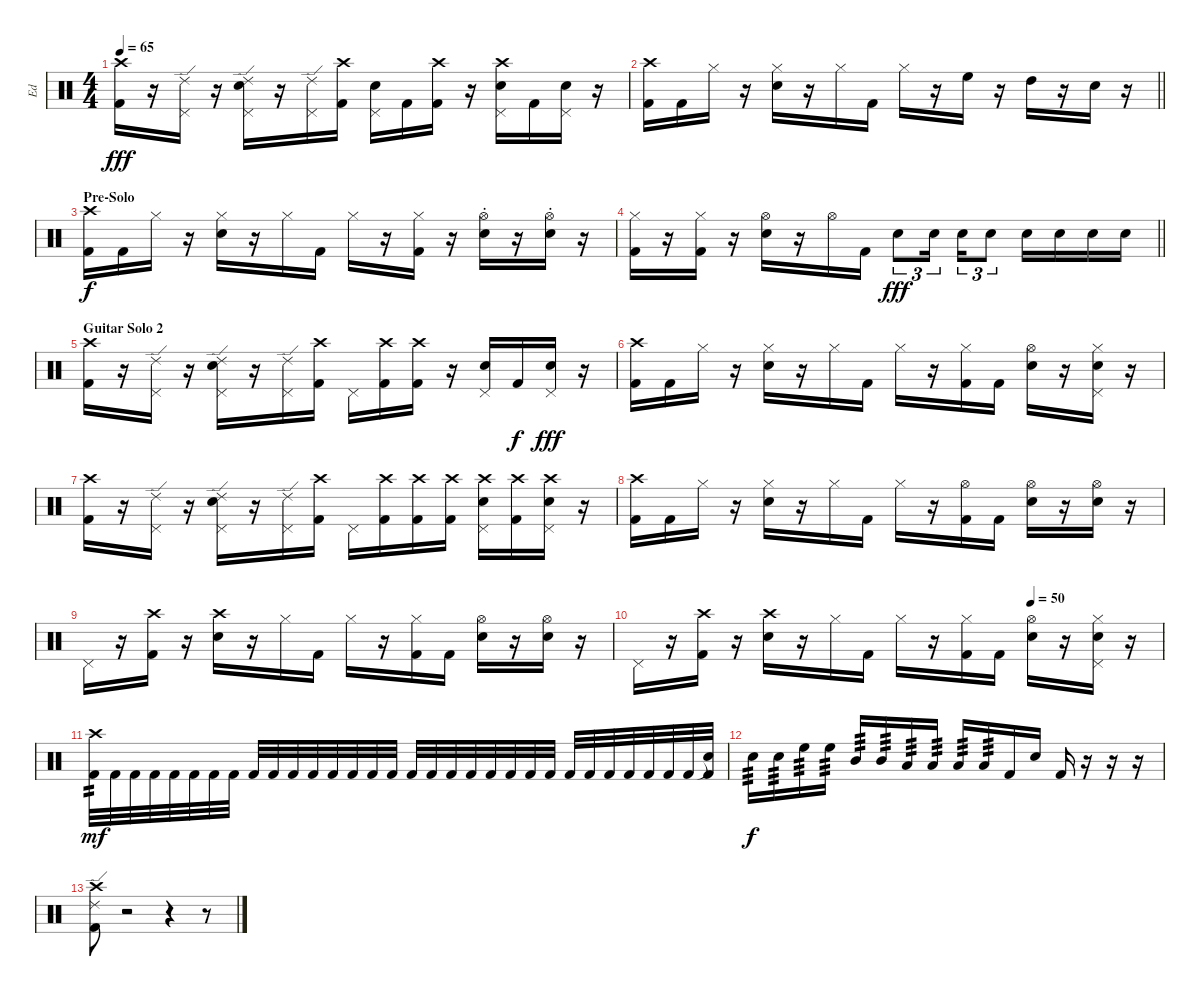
\track ("Ed" "Ed") {instrument percussion}
\staff {score}
\articulation defaults
\ts (4 4)
\tempo 65
\clef neutral
\ks c
("Crash high (hit)" "Kick (hit) 2").16{dy fff} r.16 ("Ride (edge) 2" "Pedal Hi-Hat (hit)").16 r.16 ("Ride (edge) 2" "Electric Snare (hit)" "Pedal Hi-Hat (hit)").16 r.16 ("Ride (edge) 2" "Pedal Hi-Hat (hit)").16 ("Crash high (hit)" "Kick (hit) 2").16 ("Electric Snare (hit)" "Pedal Hi-Hat (hit)").16 "Kick (hit) 2".16 ("Crash high (hit)" "Kick (hit) 2").16 r.16 ("Crash high (hit)" "Electric Snare (hit)" "Pedal Hi-Hat (hit)").16 "Kick (hit) 2".16 ("Electric Snare (hit)" "Pedal Hi-Hat (hit)").16 r.16 |
\barLineRight lightlight
("Crash high (hit)" "Kick (hit) 2").16 "Kick (hit) 2".16 "Hi-Hat (closed)".16 r.16 ("Hi-Hat (closed)" "Electric Snare (hit)").16 r.16 "Hi-Hat (closed)".16 "Kick (hit) 2".16 "Hi-Hat (closed)".16 r.16 "High Floor Tom (hit)".16 r.16 "High Tom (hit)".16 r.16 "Electric Snare (hit)".16 r.16 |
\section ("" "Pre-Solo")
("Crash high (hit)" "Kick (hit) 2").16{dy f} "Kick (hit) 2".16 "Hi-Hat (closed)".16 r.16 ("Hi-Hat (closed)" "Electric Snare (hit)").16 r.16 "Hi-Hat (closed)".16 "Kick (hit) 2".16 "Hi-Hat (closed)".16 r.16 ("Hi-Hat (closed)" "Kick (hit) 2").16 r.16 ("Hi-Hat (open)"{st} "Electric Snare (hit)").16 r.16 ("Hi-Hat (open)"{st} "Electric Snare (hit)").16 r.16 |
\barLineRight lightlight
("Hi-Hat (closed)" "Kick (hit) 2").16 r.16 ("Hi-Hat (closed)" "Kick (hit) 2").16 r.16 ("Hi-Hat (open)" "Electric Snare (hit)").16 r.16 "Hi-Hat (open)".16 "Kick (hit) 2".16 "Electric Snare (hit)".8{tu (3 2) dy fff} "Electric Snare (hit)".16{tu (3 2) beam splitsecondary} "Electric Snare (hit)".16{tu (3 2)} "Electric Snare (hit)".8{tu (3 2)} "Electric Snare (hit)".16 "Electric Snare (hit)".16 "Electric Snare (hit)".16 "Electric Snare (hit)".16 |
\section ("" "Guitar Solo 2")
("Crash high (hit)" "Kick (hit) 2").16 r.16 ("Ride (edge) 2" "Pedal Hi-Hat (hit)").16 r.16 ("Ride (edge) 2" "Electric Snare (hit)" "Pedal Hi-Hat (hit)").16 r.16 ("Ride (edge) 2" "Pedal Hi-Hat (hit)").16 ("Crash high (hit)" "Kick (hit) 2").16 "Pedal Hi-Hat (hit)".16 ("Crash high (hit)" "Kick (hit) 2").16 ("Crash high (hit)" "Kick (hit) 2").16 r.16 ("Electric Snare (hit)" "Pedal Hi-Hat (hit)").16 "Kick (hit) 2".16{dy f} ("Electric Snare (hit)" "Pedal Hi-Hat (hit)").16{dy fff} r.16 |
("Crash high (hit)" "Kick (hit) 2").16 "Kick (hit) 2".16 "Hi-Hat (closed)".16 r.16 ("Hi-Hat (closed)" "Electric Snare (hit)").16 r.16 "Hi-Hat (closed)".16 "Kick (hit) 2".16 "Hi-Hat (closed)".16 r.16 ("Hi-Hat (closed)" "Kick (hit) 2").16 "Kick (hit) 2".16 ("Hi-Hat (open)" "Electric Snare (hit)").16 r.16 ("Hi-Hat (closed)" "Electric Snare (hit)" "Pedal Hi-Hat (hit)").16 r.16 |
("Crash high (hit)" "Kick (hit) 2").16 r.16 ("Ride (edge) 2" "Pedal Hi-Hat (hit)").16 r.16 ("Ride (edge) 2" "Electric Snare (hit)" "Pedal Hi-Hat (hit)").16 r.16 ("Ride (edge) 2" "Pedal Hi-Hat (hit)").16 ("Crash high (hit)" "Kick (hit) 2").16 "Pedal Hi-Hat (hit)".16 ("Crash high (hit)" "Kick (hit) 2").16 ("Crash high (hit)" "Kick (hit) 2").16 ("Crash high (hit)" "Kick (hit) 2").16 ("Crash high (hit)" "Electric Snare (hit)" "Pedal Hi-Hat (hit)").16 ("Crash high (hit)" "Kick (hit) 2").16 ("Crash high (hit)" "Electric Snare (hit)" "Pedal Hi-Hat (hit)").16 r.16 |
("Crash high (hit)" "Kick (hit) 2").16 "Kick (hit) 2".16 "Hi-Hat (closed)".16 r.16 ("Hi-Hat (closed)" "Electric Snare (hit)").16 r.16 "Hi-Hat (closed)".16 "Kick (hit) 2".16 "Hi-Hat (closed)".16 r.16 ("Hi-Hat (open)" "Kick (hit) 2").16 "Kick (hit) 2".16 ("Hi-Hat (open)" "Electric Snare (hit)").16 r.16 ("Hi-Hat (open)" "Electric Snare (hit)").16 r.16 |
"Pedal Hi-Hat (hit)".16 r.16 ("Crash high (hit)" "Kick (hit) 2").16 r.16 ("Crash high (hit)" "Electric Snare (hit)").16 r.16 "Hi-Hat (closed)".16 "Kick (hit) 2".16 "Hi-Hat (closed)".16 r.16 ("Hi-Hat (closed)" "Kick (hit) 2").16 "Kick (hit) 2".16 ("Hi-Hat (open)" "Electric Snare (hit)").16 r.16 ("Hi-Hat (open)" "Electric Snare (hit)").16 r.16 |
\tempo (50 0.75)
"Pedal Hi-Hat (hit)".16 r.16 ("Crash high (hit)" "Kick (hit) 2").16 r.16 ("Crash high (hit)" "Electric Snare (hit)").16 r.16 "Hi-Hat (closed)".16 "Kick (hit) 2".16 "Hi-Hat (closed)".16 r.16 ("Hi-Hat (closed)" "Kick (hit) 2").16 "Kick (hit) 2".16 ("Hi-Hat (open)" "Electric Snare (hit)").16 r.16 ("Hi-Hat (closed)" "Electric Snare (hit)" "Pedal Hi-Hat (hit)").16 r.16 |
("Crash high (hit)" "Kick (hit) 2").32{tp 2 dy mf} "Kick (hit) 2".32 "Kick (hit) 2".32 "Kick (hit) 2".32 "Kick (hit) 2".32 "Kick (hit) 2".32 "Kick (hit) 2".32 "Kick (hit) 2".32 "Kick (hit) 2".32 "Kick (hit) 2".32 "Kick (hit) 2".32 "Kick (hit) 2".32 "Kick (hit) 2".32 "Kick (hit) 2".32 "Kick (hit) 2".32 "Kick (hit) 2".32 "Kick (hit) 2".32 "Kick (hit) 2".32 "Kick (hit) 2".32 "Kick (hit) 2".32 "Kick (hit) 2".32 "Kick (hit) 2".32 "Kick (hit) 2".32 "Kick (hit) 2".32 "Kick (hit) 2".32 "Kick (hit) 2".32 "Kick (hit) 2".32 "Kick (hit) 2".32 "Kick (hit) 2".32 "Kick (hit) 2".32 "Kick (hit) 2".32 ("Snare (hit)"{t} "Kick (hit) 2").32 |
"Electric Snare (hit)".16{tp 3 dy f} "Electric Snare (hit)".16{tp 3} "High Floor Tom (hit)".16{tp 3} "High Floor Tom (hit)".16{tp 3} "Mid Tom (hit)".16{tp 3} "Mid Tom (hit)".16{tp 3} "Low Tom (hit)".16{tp 3} "Low Tom (hit)".16{tp 3} "Low Floor Tom (hit)".16{tp 3} "Low Floor Tom (hit)".16{tp 3} "Kick (hit) 2".16 "Electric Snare (hit)".16 "Kick (hit) 2".16 r.16 r.16 r.16 |
("Crash high (hit)" "Ride (edge) 2" "Kick (hit) 2").8 r.2 r.4 r.8
